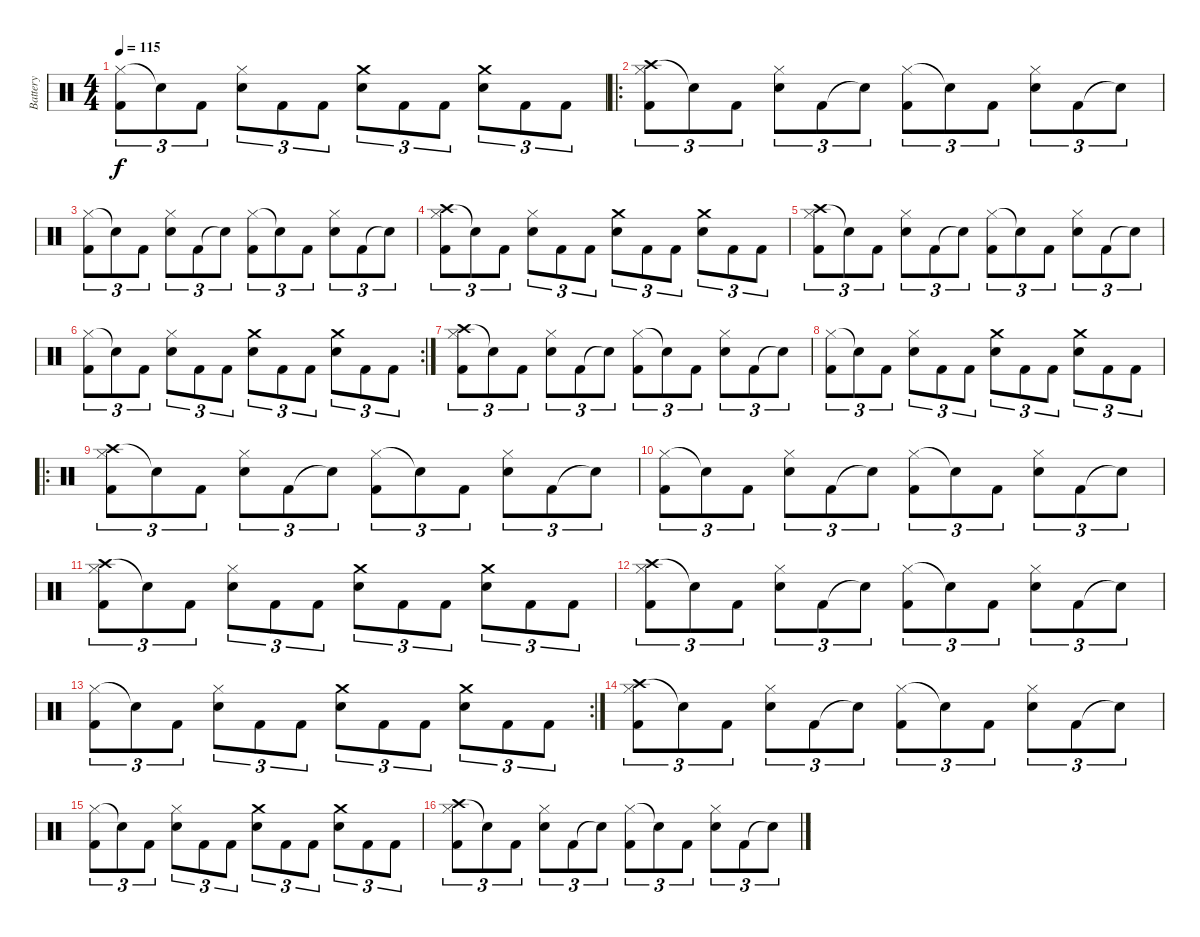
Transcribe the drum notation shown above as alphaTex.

\track ("Battery" "Battery") {instrument percussion}
\staff {score}
\articulation defaults
\ts (4 4)
\tempo 115
\clef neutral
\ks c
("Hi-Hat (closed)" "Kick (hit) 2").8{tu (3 2) dy f} "Snare (hit)"{t}.8{tu (3 2)} "Kick (hit) 2".8{tu (3 2)} ("Hi-Hat (closed)" "Electric Snare (hit)").8{tu (3 2)} "Kick (hit) 2".8{tu (3 2)} "Kick (hit) 2".8{tu (3 2)} ("Crash medium (hit)" "Electric Snare (hit)").8{tu (3 2)} "Kick (hit) 2".8{tu (3 2)} "Kick (hit) 2".8{tu (3 2)} ("Crash medium (hit)" "Electric Snare (hit)").8{tu (3 2)} "Kick (hit) 2".8{tu (3 2)} "Kick (hit) 2".8{tu (3 2)} |
\ro
("Crash high (hit)" "Hi-Hat (closed)" "Kick (hit) 2").8{tu (3 2)} "Snare (hit)"{t}.8{tu (3 2)} "Kick (hit) 2".8{tu (3 2)} ("Hi-Hat (closed)" "Electric Snare (hit)").8{tu (3 2)} "Kick (hit) 2".8{tu (3 2)} "Snare (hit)"{t}.8{tu (3 2)} ("Hi-Hat (closed)" "Kick (hit) 2").8{tu (3 2)} "Snare (hit)"{t}.8{tu (3 2)} "Kick (hit) 2".8{tu (3 2)} ("Hi-Hat (closed)" "Electric Snare (hit)").8{tu (3 2)} "Kick (hit) 2".8{tu (3 2)} "Snare (hit)"{t}.8{tu (3 2)} |
("Hi-Hat (closed)" "Kick (hit) 2").8{tu (3 2)} "Snare (hit)"{t}.8{tu (3 2)} "Kick (hit) 2".8{tu (3 2)} ("Hi-Hat (closed)" "Electric Snare (hit)").8{tu (3 2)} "Kick (hit) 2".8{tu (3 2)} "Snare (hit)"{t}.8{tu (3 2)} ("Hi-Hat (closed)" "Kick (hit) 2").8{tu (3 2)} "Snare (hit)"{t}.8{tu (3 2)} "Kick (hit) 2".8{tu (3 2)} ("Hi-Hat (closed)" "Electric Snare (hit)").8{tu (3 2)} "Kick (hit) 2".8{tu (3 2)} "Snare (hit)"{t}.8{tu (3 2)} |
("Crash high (hit)" "Hi-Hat (closed)" "Kick (hit) 2").8{tu (3 2)} "Snare (hit)"{t}.8{tu (3 2)} "Kick (hit) 2".8{tu (3 2)} ("Hi-Hat (closed)" "Electric Snare (hit)").8{tu (3 2)} "Kick (hit) 2".8{tu (3 2)} "Kick (hit) 2".8{tu (3 2)} ("Crash medium (hit)" "Electric Snare (hit)").8{tu (3 2)} "Kick (hit) 2".8{tu (3 2)} "Kick (hit) 2".8{tu (3 2)} ("Crash medium (hit)" "Electric Snare (hit)").8{tu (3 2)} "Kick (hit) 2".8{tu (3 2)} "Kick (hit) 2".8{tu (3 2)} |
("Crash high (hit)" "Hi-Hat (closed)" "Kick (hit) 2").8{tu (3 2)} "Snare (hit)"{t}.8{tu (3 2)} "Kick (hit) 2".8{tu (3 2)} ("Hi-Hat (closed)" "Electric Snare (hit)").8{tu (3 2)} "Kick (hit) 2".8{tu (3 2)} "Snare (hit)"{t}.8{tu (3 2)} ("Hi-Hat (closed)" "Kick (hit) 2").8{tu (3 2)} "Snare (hit)"{t}.8{tu (3 2)} "Kick (hit) 2".8{tu (3 2)} ("Hi-Hat (closed)" "Electric Snare (hit)").8{tu (3 2)} "Kick (hit) 2".8{tu (3 2)} "Snare (hit)"{t}.8{tu (3 2)} |
\rc 2
("Hi-Hat (closed)" "Kick (hit) 2").8{tu (3 2)} "Snare (hit)"{t}.8{tu (3 2)} "Kick (hit) 2".8{tu (3 2)} ("Hi-Hat (closed)" "Electric Snare (hit)").8{tu (3 2)} "Kick (hit) 2".8{tu (3 2)} "Kick (hit) 2".8{tu (3 2)} ("Crash medium (hit)" "Electric Snare (hit)").8{tu (3 2)} "Kick (hit) 2".8{tu (3 2)} "Kick (hit) 2".8{tu (3 2)} ("Crash medium (hit)" "Electric Snare (hit)").8{tu (3 2)} "Kick (hit) 2".8{tu (3 2)} "Kick (hit) 2".8{tu (3 2)} |
("Crash high (hit)" "Hi-Hat (closed)" "Kick (hit) 2").8{tu (3 2)} "Snare (hit)"{t}.8{tu (3 2)} "Kick (hit) 2".8{tu (3 2)} ("Hi-Hat (closed)" "Electric Snare (hit)").8{tu (3 2)} "Kick (hit) 2".8{tu (3 2)} "Snare (hit)"{t}.8{tu (3 2)} ("Hi-Hat (closed)" "Kick (hit) 2").8{tu (3 2)} "Snare (hit)"{t}.8{tu (3 2)} "Kick (hit) 2".8{tu (3 2)} ("Hi-Hat (closed)" "Electric Snare (hit)").8{tu (3 2)} "Kick (hit) 2".8{tu (3 2)} "Snare (hit)"{t}.8{tu (3 2)} |
("Hi-Hat (closed)" "Kick (hit) 2").8{tu (3 2)} "Snare (hit)"{t}.8{tu (3 2)} "Kick (hit) 2".8{tu (3 2)} ("Hi-Hat (closed)" "Electric Snare (hit)").8{tu (3 2)} "Kick (hit) 2".8{tu (3 2)} "Kick (hit) 2".8{tu (3 2)} ("Crash medium (hit)" "Electric Snare (hit)").8{tu (3 2)} "Kick (hit) 2".8{tu (3 2)} "Kick (hit) 2".8{tu (3 2)} ("Crash medium (hit)" "Electric Snare (hit)").8{tu (3 2)} "Kick (hit) 2".8{tu (3 2)} "Kick (hit) 2".8{tu (3 2)} |
\ro
("Crash high (hit)" "Hi-Hat (closed)" "Kick (hit) 2").8{tu (3 2)} "Snare (hit)"{t}.8{tu (3 2)} "Kick (hit) 2".8{tu (3 2)} ("Hi-Hat (closed)" "Electric Snare (hit)").8{tu (3 2)} "Kick (hit) 2".8{tu (3 2)} "Snare (hit)"{t}.8{tu (3 2)} ("Hi-Hat (closed)" "Kick (hit) 2").8{tu (3 2)} "Snare (hit)"{t}.8{tu (3 2)} "Kick (hit) 2".8{tu (3 2)} ("Hi-Hat (closed)" "Electric Snare (hit)").8{tu (3 2)} "Kick (hit) 2".8{tu (3 2)} "Snare (hit)"{t}.8{tu (3 2)} |
("Hi-Hat (closed)" "Kick (hit) 2").8{tu (3 2)} "Snare (hit)"{t}.8{tu (3 2)} "Kick (hit) 2".8{tu (3 2)} ("Hi-Hat (closed)" "Electric Snare (hit)").8{tu (3 2)} "Kick (hit) 2".8{tu (3 2)} "Snare (hit)"{t}.8{tu (3 2)} ("Hi-Hat (closed)" "Kick (hit) 2").8{tu (3 2)} "Snare (hit)"{t}.8{tu (3 2)} "Kick (hit) 2".8{tu (3 2)} ("Hi-Hat (closed)" "Electric Snare (hit)").8{tu (3 2)} "Kick (hit) 2".8{tu (3 2)} "Snare (hit)"{t}.8{tu (3 2)} |
("Crash high (hit)" "Hi-Hat (closed)" "Kick (hit) 2").8{tu (3 2)} "Snare (hit)"{t}.8{tu (3 2)} "Kick (hit) 2".8{tu (3 2)} ("Hi-Hat (closed)" "Electric Snare (hit)").8{tu (3 2)} "Kick (hit) 2".8{tu (3 2)} "Kick (hit) 2".8{tu (3 2)} ("Crash medium (hit)" "Electric Snare (hit)").8{tu (3 2)} "Kick (hit) 2".8{tu (3 2)} "Kick (hit) 2".8{tu (3 2)} ("Crash medium (hit)" "Electric Snare (hit)").8{tu (3 2)} "Kick (hit) 2".8{tu (3 2)} "Kick (hit) 2".8{tu (3 2)} |
("Crash high (hit)" "Hi-Hat (closed)" "Kick (hit) 2").8{tu (3 2)} "Snare (hit)"{t}.8{tu (3 2)} "Kick (hit) 2".8{tu (3 2)} ("Hi-Hat (closed)" "Electric Snare (hit)").8{tu (3 2)} "Kick (hit) 2".8{tu (3 2)} "Snare (hit)"{t}.8{tu (3 2)} ("Hi-Hat (closed)" "Kick (hit) 2").8{tu (3 2)} "Snare (hit)"{t}.8{tu (3 2)} "Kick (hit) 2".8{tu (3 2)} ("Hi-Hat (closed)" "Electric Snare (hit)").8{tu (3 2)} "Kick (hit) 2".8{tu (3 2)} "Snare (hit)"{t}.8{tu (3 2)} |
\rc 2
("Hi-Hat (closed)" "Kick (hit) 2").8{tu (3 2)} "Snare (hit)"{t}.8{tu (3 2)} "Kick (hit) 2".8{tu (3 2)} ("Hi-Hat (closed)" "Electric Snare (hit)").8{tu (3 2)} "Kick (hit) 2".8{tu (3 2)} "Kick (hit) 2".8{tu (3 2)} ("Crash medium (hit)" "Electric Snare (hit)").8{tu (3 2)} "Kick (hit) 2".8{tu (3 2)} "Kick (hit) 2".8{tu (3 2)} ("Crash medium (hit)" "Electric Snare (hit)").8{tu (3 2)} "Kick (hit) 2".8{tu (3 2)} "Kick (hit) 2".8{tu (3 2)} |
("Crash high (hit)" "Hi-Hat (closed)" "Kick (hit) 2").8{tu (3 2)} "Snare (hit)"{t}.8{tu (3 2)} "Kick (hit) 2".8{tu (3 2)} ("Hi-Hat (closed)" "Electric Snare (hit)").8{tu (3 2)} "Kick (hit) 2".8{tu (3 2)} "Snare (hit)"{t}.8{tu (3 2)} ("Hi-Hat (closed)" "Kick (hit) 2").8{tu (3 2)} "Snare (hit)"{t}.8{tu (3 2)} "Kick (hit) 2".8{tu (3 2)} ("Hi-Hat (closed)" "Electric Snare (hit)").8{tu (3 2)} "Kick (hit) 2".8{tu (3 2)} "Snare (hit)"{t}.8{tu (3 2)} |
("Hi-Hat (closed)" "Kick (hit) 2").8{tu (3 2)} "Snare (hit)"{t}.8{tu (3 2)} "Kick (hit) 2".8{tu (3 2)} ("Hi-Hat (closed)" "Electric Snare (hit)").8{tu (3 2)} "Kick (hit) 2".8{tu (3 2)} "Kick (hit) 2".8{tu (3 2)} ("Crash medium (hit)" "Electric Snare (hit)").8{tu (3 2)} "Kick (hit) 2".8{tu (3 2)} "Kick (hit) 2".8{tu (3 2)} ("Crash medium (hit)" "Electric Snare (hit)").8{tu (3 2)} "Kick (hit) 2".8{tu (3 2)} "Kick (hit) 2".8{tu (3 2)} |
("Crash high (hit)" "Hi-Hat (closed)" "Kick (hit) 2").8{tu (3 2)} "Snare (hit)"{t}.8{tu (3 2)} "Kick (hit) 2".8{tu (3 2)} ("Hi-Hat (closed)" "Electric Snare (hit)").8{tu (3 2)} "Kick (hit) 2".8{tu (3 2)} "Snare (hit)"{t}.8{tu (3 2)} ("Hi-Hat (closed)" "Kick (hit) 2").8{tu (3 2)} "Snare (hit)"{t}.8{tu (3 2)} "Kick (hit) 2".8{tu (3 2)} ("Hi-Hat (closed)" "Electric Snare (hit)").8{tu (3 2)} "Kick (hit) 2".8{tu (3 2)} "Snare (hit)"{t}.8{tu (3 2)}
